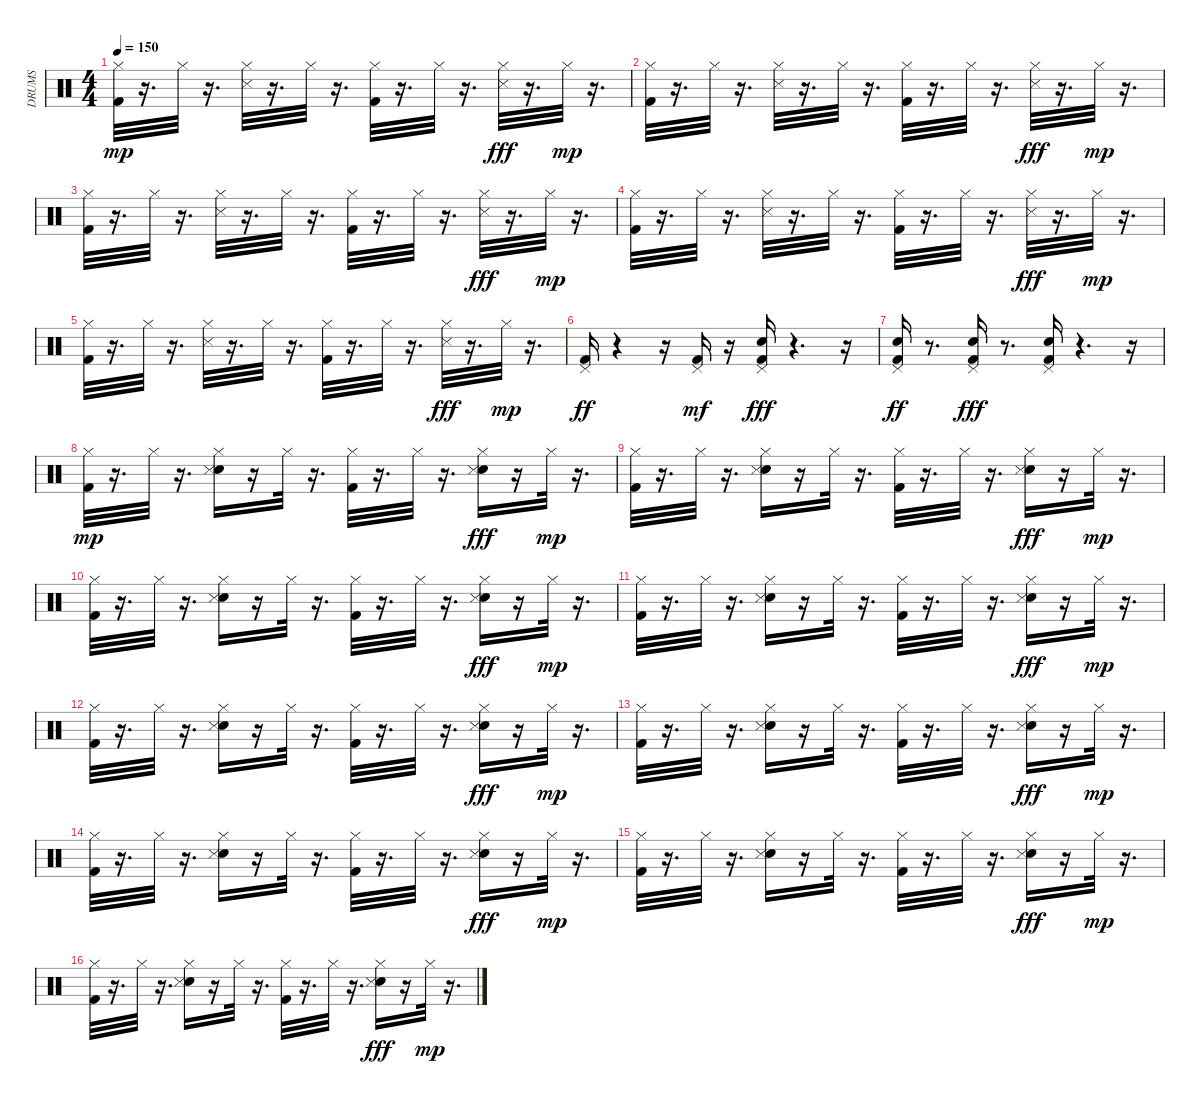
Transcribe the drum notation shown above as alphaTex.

\track ("DRUMS" "DRUMS") {instrument percussion}
\staff {score}
\articulation defaults
\ts (4 4)
\tempo 150
\clef neutral
\ks c
("Hi-Hat (closed)" "Kick (hit) 2").32{dy mp} r.16{d} "Hi-Hat (closed)".32 r.16{d} ("Snare (side stick) 3" "Hi-Hat (closed)").32 r.16{d} "Hi-Hat (closed)".32 r.16{d} ("Kick (hit) 2" "Hi-Hat (closed)").32 r.16{d} "Hi-Hat (closed)".32 r.16{d} ("Hi-Hat (closed)" "Snare (side stick) 3").32{dy fff} r.16{d} "Hi-Hat (closed)".32{dy mp} r.16{d} |
("Hi-Hat (closed)" "Kick (hit) 2").32 r.16{d} "Hi-Hat (closed)".32 r.16{d} ("Snare (side stick) 3" "Hi-Hat (closed)").32 r.16{d} "Hi-Hat (closed)".32 r.16{d} ("Kick (hit) 2" "Hi-Hat (closed)").32 r.16{d} "Hi-Hat (closed)".32 r.16{d} ("Hi-Hat (closed)" "Snare (side stick) 3").32{dy fff} r.16{d} "Hi-Hat (closed)".32{dy mp} r.16{d} |
("Hi-Hat (closed)" "Kick (hit) 2").32 r.16{d} "Hi-Hat (closed)".32 r.16{d} ("Snare (side stick) 3" "Hi-Hat (closed)").32 r.16{d} "Hi-Hat (closed)".32 r.16{d} ("Kick (hit) 2" "Hi-Hat (closed)").32 r.16{d} "Hi-Hat (closed)".32 r.16{d} ("Hi-Hat (closed)" "Snare (side stick) 3").32{dy fff} r.16{d} "Hi-Hat (closed)".32{dy mp} r.16{d} |
("Hi-Hat (closed)" "Kick (hit) 2").32 r.16{d} "Hi-Hat (closed)".32 r.16{d} ("Snare (side stick) 3" "Hi-Hat (closed)").32 r.16{d} "Hi-Hat (closed)".32 r.16{d} ("Kick (hit) 2" "Hi-Hat (closed)").32 r.16{d} "Hi-Hat (closed)".32 r.16{d} ("Hi-Hat (closed)" "Snare (side stick) 3").32{dy fff} r.16{d} "Hi-Hat (closed)".32{dy mp} r.16{d} |
("Hi-Hat (closed)" "Kick (hit) 2").32 r.16{d} "Hi-Hat (closed)".32 r.16{d} ("Snare (side stick) 3" "Hi-Hat (closed)").32 r.16{d} "Hi-Hat (closed)".32 r.16{d} ("Kick (hit) 2" "Hi-Hat (closed)").32 r.16{d} "Hi-Hat (closed)".32 r.16{d} ("Hi-Hat (closed)" "Snare (side stick) 3").32{dy fff} r.16{d} "Hi-Hat (closed)".32{dy mp} r.16{d} |
("Pedal Hi-Hat (hit)" "Kick (hit) 2").16{dy ff} r.4 r.16 ("Pedal Hi-Hat (hit)" "Kick (hit) 2").16{dy mf} r.16 ("Kick (hit) 2" "Snare (hit) 2" "Pedal Hi-Hat (hit)").16{dy fff} r.4{d} r.16 |
("Snare (hit) 2" "Kick (hit) 2" "Pedal Hi-Hat (hit)").16{dy ff} r.8{d} ("Kick (hit) 2" "Snare (hit) 2" "Pedal Hi-Hat (hit)").16{dy fff} r.8{d} ("Kick (hit) 2" "Pedal Hi-Hat (hit)" "Snare (hit) 2").16 r.4{d} r.16 |
("Hi-Hat (closed)" "Kick (hit) 2").32{dy mp} r.16{d} "Hi-Hat (closed)".32 r.16{d} ("Snare (hit) 2" "Snare (side stick) 3" "Hi-Hat (closed)").16 r.16 "Hi-Hat (closed)".32 r.16{d} ("Kick (hit) 2" "Hi-Hat (closed)").32 r.16{d} "Hi-Hat (closed)".32 r.16{d} ("Snare (hit) 2" "Hi-Hat (closed)" "Snare (side stick) 3").16{dy fff} r.16 "Hi-Hat (closed)".32{dy mp} r.16{d} |
("Hi-Hat (closed)" "Kick (hit) 2").32 r.16{d} "Hi-Hat (closed)".32 r.16{d} ("Snare (hit) 2" "Snare (side stick) 3" "Hi-Hat (closed)").16 r.16 "Hi-Hat (closed)".32 r.16{d} ("Kick (hit) 2" "Hi-Hat (closed)").32 r.16{d} "Hi-Hat (closed)".32 r.16{d} ("Snare (hit) 2" "Hi-Hat (closed)" "Snare (side stick) 3").16{dy fff} r.16 "Hi-Hat (closed)".32{dy mp} r.16{d} |
("Hi-Hat (closed)" "Kick (hit) 2").32 r.16{d} "Hi-Hat (closed)".32 r.16{d} ("Snare (hit) 2" "Snare (side stick) 3" "Hi-Hat (closed)").16 r.16 "Hi-Hat (closed)".32 r.16{d} ("Kick (hit) 2" "Hi-Hat (closed)").32 r.16{d} "Hi-Hat (closed)".32 r.16{d} ("Snare (hit) 2" "Hi-Hat (closed)" "Snare (side stick) 3").16{dy fff} r.16 "Hi-Hat (closed)".32{dy mp} r.16{d} |
("Hi-Hat (closed)" "Kick (hit) 2").32 r.16{d} "Hi-Hat (closed)".32 r.16{d} ("Snare (hit) 2" "Snare (side stick) 3" "Hi-Hat (closed)").16 r.16 "Hi-Hat (closed)".32 r.16{d} ("Kick (hit) 2" "Hi-Hat (closed)").32 r.16{d} "Hi-Hat (closed)".32 r.16{d} ("Snare (hit) 2" "Hi-Hat (closed)" "Snare (side stick) 3").16{dy fff} r.16 "Hi-Hat (closed)".32{dy mp} r.16{d} |
("Hi-Hat (closed)" "Kick (hit) 2").32 r.16{d} "Hi-Hat (closed)".32 r.16{d} ("Snare (hit) 2" "Snare (side stick) 3" "Hi-Hat (closed)").16 r.16 "Hi-Hat (closed)".32 r.16{d} ("Kick (hit) 2" "Hi-Hat (closed)").32 r.16{d} "Hi-Hat (closed)".32 r.16{d} ("Snare (hit) 2" "Hi-Hat (closed)" "Snare (side stick) 3").16{dy fff} r.16 "Hi-Hat (closed)".32{dy mp} r.16{d} |
("Hi-Hat (closed)" "Kick (hit) 2").32 r.16{d} "Hi-Hat (closed)".32 r.16{d} ("Snare (hit) 2" "Snare (side stick) 3" "Hi-Hat (closed)").16 r.16 "Hi-Hat (closed)".32 r.16{d} ("Kick (hit) 2" "Hi-Hat (closed)").32 r.16{d} "Hi-Hat (closed)".32 r.16{d} ("Snare (hit) 2" "Hi-Hat (closed)" "Snare (side stick) 3").16{dy fff} r.16 "Hi-Hat (closed)".32{dy mp} r.16{d} |
("Hi-Hat (closed)" "Kick (hit) 2").32 r.16{d} "Hi-Hat (closed)".32 r.16{d} ("Snare (hit) 2" "Snare (side stick) 3" "Hi-Hat (closed)").16 r.16 "Hi-Hat (closed)".32 r.16{d} ("Kick (hit) 2" "Hi-Hat (closed)").32 r.16{d} "Hi-Hat (closed)".32 r.16{d} ("Snare (hit) 2" "Hi-Hat (closed)" "Snare (side stick) 3").16{dy fff} r.16 "Hi-Hat (closed)".32{dy mp} r.16{d} |
("Hi-Hat (closed)" "Kick (hit) 2").32 r.16{d} "Hi-Hat (closed)".32 r.16{d} ("Snare (hit) 2" "Snare (side stick) 3" "Hi-Hat (closed)").16 r.16 "Hi-Hat (closed)".32 r.16{d} ("Kick (hit) 2" "Hi-Hat (closed)").32 r.16{d} "Hi-Hat (closed)".32 r.16{d} ("Snare (hit) 2" "Hi-Hat (closed)" "Snare (side stick) 3").16{dy fff} r.16 "Hi-Hat (closed)".32{dy mp} r.16{d} |
("Hi-Hat (closed)" "Kick (hit) 2").32 r.16{d} "Hi-Hat (closed)".32 r.16{d} ("Snare (hit) 2" "Snare (side stick) 3" "Hi-Hat (closed)").16 r.16 "Hi-Hat (closed)".32 r.16{d} ("Kick (hit) 2" "Hi-Hat (closed)").32 r.16{d} "Hi-Hat (closed)".32 r.16{d} ("Snare (hit) 2" "Hi-Hat (closed)" "Snare (side stick) 3").16{dy fff} r.16 "Hi-Hat (closed)".32{dy mp} r.16{d}
